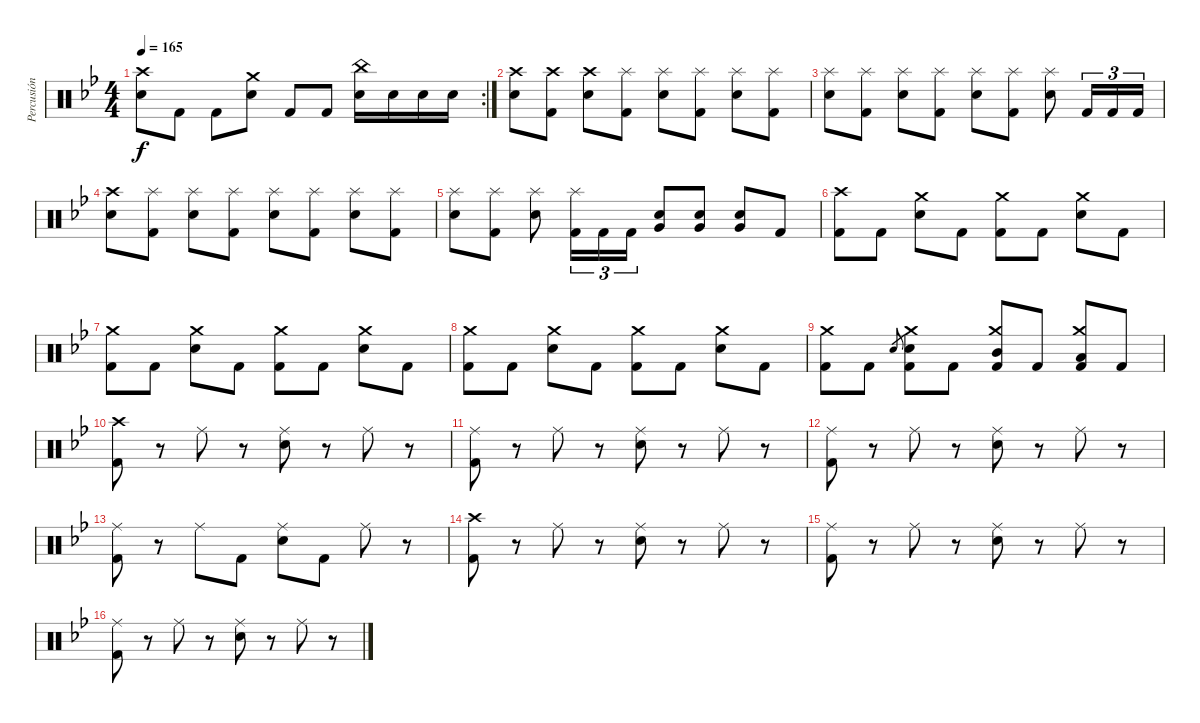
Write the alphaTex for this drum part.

\track ("Percusión" "Percusión") {instrument percussion}
\staff {score}
\articulation defaults
\rc 2
\ts (4 4)
\tempo 165
\clef neutral
\ks bb
("Crash high (hit)" "Electric Snare (hit)").8{dy f} "Kick (hit) 2".8 "Kick (hit) 2".8 ("Crash medium (hit)" "Electric Snare (hit)").8 "Kick (hit) 2".8 "Kick (hit) 2".8 ("China (hit)" "Electric Snare (hit)").16 "Electric Snare (hit)".16 "Electric Snare (hit)".16 "Electric Snare (hit)".16 |
("Crash high (hit)" "Electric Snare (hit)").8 ("Crash high (hit)" "Kick (hit) 2").8 ("Crash high (hit)" "Electric Snare (hit)").8 ("Splash (hit)" "Kick (hit) 2").8 ("Splash (hit)" "Electric Snare (hit)").8 ("Splash (hit)" "Kick (hit) 2").8 ("Splash (hit)" "Electric Snare (hit)").8 ("Splash (hit)" "Kick (hit) 2").8 |
("Splash (hit)" "Electric Snare (hit)").8 ("Splash (hit)" "Kick (hit) 2").8 ("Splash (hit)" "Electric Snare (hit)").8 ("Splash (hit)" "Kick (hit) 2").8 ("Splash (hit)" "Electric Snare (hit)").8 ("Splash (hit)" "Kick (hit) 2").8 ("Splash (hit)" "Electric Snare (hit)").8 "Kick (hit) 2".16{tu (3 2)} "Kick (hit) 2".16{tu (3 2)} "Kick (hit) 2".16{tu (3 2)} |
("Crash high (hit)" "Electric Snare (hit)").8 ("Splash (hit)" "Kick (hit) 2").8 ("Splash (hit)" "Electric Snare (hit)").8 ("Splash (hit)" "Kick (hit) 2").8 ("Splash (hit)" "Electric Snare (hit)").8 ("Splash (hit)" "Kick (hit) 2").8 ("Splash (hit)" "Electric Snare (hit)").8 ("Splash (hit)" "Kick (hit) 2").8 |
("Splash (hit)" "Electric Snare (hit)").8 ("Splash (hit)" "Kick (hit) 2").8 ("Splash (hit)" "Electric Snare (hit)").8 ("Splash (hit)" "Kick (hit) 2").16{tu (3 2)} "Kick (hit) 2".16{tu (3 2)} "Kick (hit) 2".16{tu (3 2)} ("Electric Snare (hit)" "Very Low Tom (hit)").8 ("Electric Snare (hit)" "Very Low Tom (hit)").8 ("Electric Snare (hit)" "Very Low Tom (hit)").8 "Kick (hit) 2".8 |
("Crash high (hit)" "Kick (hit) 2").8 "Kick (hit) 2".8 ("Crash medium (hit)" "Electric Snare (hit)").8 "Kick (hit) 2".8 ("Crash medium (hit)" "Kick (hit) 2").8 "Kick (hit) 2".8 ("Crash medium (hit)" "Electric Snare (hit)").8 "Kick (hit) 2".8 |
("Crash medium (hit)" "Kick (hit) 2").8 "Kick (hit) 2".8 ("Crash medium (hit)" "Electric Snare (hit)").8 "Kick (hit) 2".8 ("Crash medium (hit)" "Kick (hit) 2").8 "Kick (hit) 2".8 ("Crash medium (hit)" "Electric Snare (hit)").8 "Kick (hit) 2".8 |
("Crash medium (hit)" "Kick (hit) 2").8 "Kick (hit) 2".8 ("Crash medium (hit)" "Electric Snare (hit)").8 "Kick (hit) 2".8 ("Crash medium (hit)" "Kick (hit) 2").8 "Kick (hit) 2".8 ("Crash medium (hit)" "Electric Snare (hit)").8 "Kick (hit) 2".8 |
("Crash medium (hit)" "Kick (hit) 2").8 "Kick (hit) 2".8 "Electric Snare (hit)".8{gr} ("Crash medium (hit)" "Electric Snare (hit)" "Kick (hit) 2").8 "Kick (hit) 2".8 ("Crash medium (hit)" "Mid Tom (hit)" "Kick (hit) 2").8 "Kick (hit) 2".8 ("Crash medium (hit)" "Low Tom (hit)" "Kick (hit) 2").8 "Kick (hit) 2".8 |
("Crash high (hit)" "Kick (hit) 2").8 r.8 "Ride (middle)".8 r.8 ("Ride (middle)" "Electric Snare (hit)").8 r.8 "Ride (middle)".8 r.8 |
("Ride (middle)" "Kick (hit) 2").8 r.8 "Ride (middle)".8 r.8 ("Ride (middle)" "Electric Snare (hit)").8 r.8 "Ride (middle)".8 r.8 |
("Ride (middle)" "Kick (hit) 2").8 r.8 "Ride (middle)".8 r.8 ("Ride (middle)" "Electric Snare (hit)").8 r.8 "Ride (middle)".8 r.8 |
("Ride (middle)" "Kick (hit) 2").8 r.8 "Ride (middle)".8 "Kick (hit) 2".8 ("Ride (middle)" "Electric Snare (hit)").8 "Kick (hit) 2".8 "Ride (middle)".8 r.8 |
("Crash high (hit)" "Kick (hit) 2").8 r.8 "Ride (middle)".8 r.8 ("Ride (middle)" "Electric Snare (hit)").8 r.8 "Ride (middle)".8 r.8 |
("Ride (middle)" "Kick (hit) 2").8 r.8 "Ride (middle)".8 r.8 ("Ride (middle)" "Electric Snare (hit)").8 r.8 "Ride (middle)".8 r.8 |
("Ride (middle)" "Kick (hit) 2").8 r.8 "Ride (middle)".8 r.8 ("Ride (middle)" "Electric Snare (hit)").8 r.8 "Ride (middle)".8 r.8
